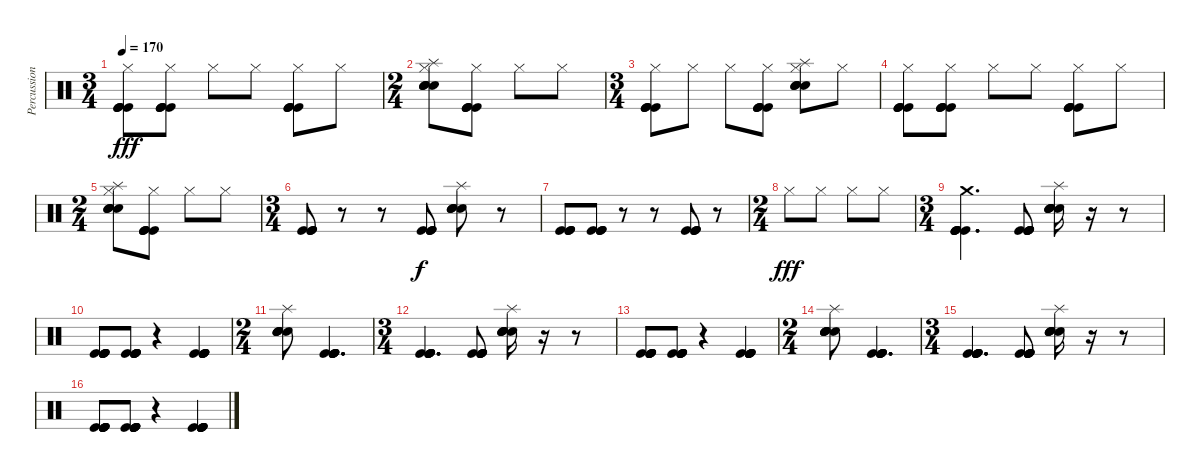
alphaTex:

\track ("Percussion" "Percussion") {instrument percussion}
\staff {score}
\articulation defaults
\ts (3 4)
\tempo 170
\clef neutral
\ks c
("Hi-Hat (closed)" "Kick (hit)" "Kick (hit)" "Kick (hit)" "Kick (hit)").8{dy fff} ("Hi-Hat (closed)" "Kick (hit)" "Kick (hit)" "Kick (hit)" "Kick (hit)").8 "Hi-Hat (closed)".8 "Hi-Hat (closed)".8 ("Hi-Hat (closed)" "Kick (hit)" "Kick (hit)" "Kick (hit)" "Kick (hit)").8 "Hi-Hat (closed)".8 |
\ts (2 4)
("Splash (hit)" "Hi-Hat (closed)" "Hand Clap (hit)" "Hand Clap (hit)" "Hand Clap (hit)" "Hand Clap (hit)").8 ("Hi-Hat (closed)" "Kick (hit)" "Kick (hit)" "Kick (hit)" "Kick (hit)").8 "Hi-Hat (closed)".8 "Hi-Hat (closed)".8 |
\ts (3 4)
("Hi-Hat (closed)" "Kick (hit)" "Kick (hit)" "Kick (hit)" "Kick (hit)").8 "Hi-Hat (closed)".8 "Hi-Hat (closed)".8 ("Hi-Hat (closed)" "Kick (hit)" "Kick (hit)" "Kick (hit)" "Kick (hit)").8 ("Splash (hit)" "Hi-Hat (closed)" "Hand Clap (hit)" "Hand Clap (hit)" "Hand Clap (hit)" "Hand Clap (hit)").8 "Hi-Hat (closed)".8 |
("Hi-Hat (closed)" "Kick (hit)" "Kick (hit)" "Kick (hit)" "Kick (hit)").8 ("Hi-Hat (closed)" "Kick (hit)" "Kick (hit)" "Kick (hit)" "Kick (hit)").8 "Hi-Hat (closed)".8 "Hi-Hat (closed)".8 ("Hi-Hat (closed)" "Kick (hit)" "Kick (hit)" "Kick (hit)" "Kick (hit)").8 "Hi-Hat (closed)".8 |
\ts (2 4)
("Splash (hit)" "Hi-Hat (closed)" "Hand Clap (hit)" "Hand Clap (hit)" "Hand Clap (hit)" "Hand Clap (hit)").8 ("Hi-Hat (closed)" "Kick (hit)" "Kick (hit)" "Kick (hit)" "Kick (hit)").8 "Hi-Hat (closed)".8 "Hi-Hat (closed)".8 |
\ts (3 4)
("Kick (hit)" "Kick (hit)" "Kick (hit)" "Kick (hit)").8 r.8 r.8 ("Kick (hit)" "Kick (hit)" "Kick (hit)" "Kick (hit)").8{dy f} ("Splash (hit)" "Hand Clap (hit)" "Hand Clap (hit)" "Hand Clap (hit)" "Hand Clap (hit)").8 r.8 |
("Kick (hit)" "Kick (hit)" "Kick (hit)" "Kick (hit)").8 ("Kick (hit)" "Kick (hit)" "Kick (hit)" "Kick (hit)").8 r.8 r.8 ("Kick (hit)" "Kick (hit)" "Kick (hit)" "Kick (hit)").8 r.8 |
\ts (2 4)
"Hi-Hat (closed)".8{dy fff} "Hi-Hat (closed)".8 "Hi-Hat (closed)".8 "Hi-Hat (closed)".8 |
\ts (3 4)
("Crash medium (hit)" "Kick (hit)" "Kick (hit)" "Kick (hit)" "Kick (hit)" "Kick (hit)").4{d} ("Kick (hit)" "Kick (hit)" "Kick (hit)" "Kick (hit)" "Kick (hit)" "Kick (hit)").8 ("Splash (hit)" "Hand Clap (hit)" "Hand Clap (hit)" "Hand Clap (hit)" "Hand Clap (hit)" "Hand Clap (hit)").16 r.16 r.8 |
("Kick (hit)" "Kick (hit)" "Kick (hit)" "Kick (hit)" "Kick (hit)" "Kick (hit)").8 ("Kick (hit)" "Kick (hit)" "Kick (hit)" "Kick (hit)" "Kick (hit)" "Kick (hit)").8 r.4 ("Kick (hit)" "Kick (hit)" "Kick (hit)" "Kick (hit)" "Kick (hit)" "Kick (hit)").4 |
\ts (2 4)
("Splash (hit)" "Hand Clap (hit)" "Hand Clap (hit)" "Hand Clap (hit)" "Hand Clap (hit)" "Hand Clap (hit)").8 ("Kick (hit)" "Kick (hit)" "Kick (hit)" "Kick (hit)" "Kick (hit)" "Kick (hit)").4{d} |
\ts (3 4)
("Kick (hit)" "Kick (hit)" "Kick (hit)" "Kick (hit)" "Kick (hit)" "Kick (hit)").4{d} ("Kick (hit)" "Kick (hit)" "Kick (hit)" "Kick (hit)" "Kick (hit)" "Kick (hit)").8 ("Splash (hit)" "Hand Clap (hit)" "Hand Clap (hit)" "Hand Clap (hit)" "Hand Clap (hit)" "Hand Clap (hit)").16 r.16 r.8 |
("Kick (hit)" "Kick (hit)" "Kick (hit)" "Kick (hit)" "Kick (hit)" "Kick (hit)").8 ("Kick (hit)" "Kick (hit)" "Kick (hit)" "Kick (hit)" "Kick (hit)" "Kick (hit)").8 r.4 ("Kick (hit)" "Kick (hit)" "Kick (hit)" "Kick (hit)" "Kick (hit)" "Kick (hit)").4 |
\ts (2 4)
("Splash (hit)" "Hand Clap (hit)" "Hand Clap (hit)" "Hand Clap (hit)" "Hand Clap (hit)" "Hand Clap (hit)").8 ("Kick (hit)" "Kick (hit)" "Kick (hit)" "Kick (hit)" "Kick (hit)" "Kick (hit)").4{d} |
\ts (3 4)
("Kick (hit)" "Kick (hit)" "Kick (hit)" "Kick (hit)" "Kick (hit)" "Kick (hit)").4{d} ("Kick (hit)" "Kick (hit)" "Kick (hit)" "Kick (hit)" "Kick (hit)" "Kick (hit)").8 ("Splash (hit)" "Hand Clap (hit)" "Hand Clap (hit)" "Hand Clap (hit)" "Hand Clap (hit)" "Hand Clap (hit)").16 r.16 r.8 |
("Kick (hit)" "Kick (hit)" "Kick (hit)" "Kick (hit)" "Kick (hit)" "Kick (hit)").8 ("Kick (hit)" "Kick (hit)" "Kick (hit)" "Kick (hit)" "Kick (hit)" "Kick (hit)").8 r.4 ("Kick (hit)" "Kick (hit)" "Kick (hit)" "Kick (hit)" "Kick (hit)" "Kick (hit)").4
